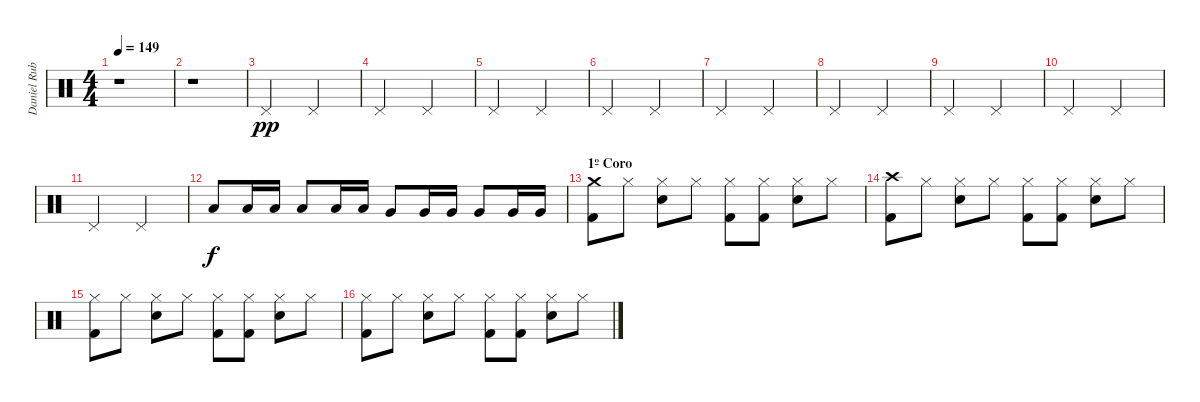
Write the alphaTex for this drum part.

\track ("Daniel Rubiano" "Daniel Rub") {instrument percussion}
\staff {score}
\articulation defaults
\ts (4 4)
\tempo 149
\clef neutral
\ks c
r.1{dy pp} |
r.1 |
"Pedal Hi-Hat (hit)".2 "Pedal Hi-Hat (hit)".2 |
"Pedal Hi-Hat (hit)".2 "Pedal Hi-Hat (hit)".2 |
"Pedal Hi-Hat (hit)".2 "Pedal Hi-Hat (hit)".2 |
"Pedal Hi-Hat (hit)".2 "Pedal Hi-Hat (hit)".2 |
"Pedal Hi-Hat (hit)".2 "Pedal Hi-Hat (hit)".2 |
"Pedal Hi-Hat (hit)".2 "Pedal Hi-Hat (hit)".2 |
"Pedal Hi-Hat (hit)".2 "Pedal Hi-Hat (hit)".2 |
"Pedal Hi-Hat (hit)".2 "Pedal Hi-Hat (hit)".2 |
"Pedal Hi-Hat (hit)".2 "Pedal Hi-Hat (hit)".2 |
"Low Tom (hit)".8{dy f} "Low Tom (hit)".16 "Low Tom (hit)".16 "Low Tom (hit)".8 "Low Tom (hit)".16 "Low Tom (hit)".16 "Very Low Tom (hit)".8 "Very Low Tom (hit)".16 "Very Low Tom (hit)".16 "Very Low Tom (hit)".8 "Very Low Tom (hit)".16 "Very Low Tom (hit)".16 |
\section ("" "1º Coro")
("Crash medium (hit)" "Kick (hit) 2").8 "Hi-Hat (closed)".8 ("Hi-Hat (closed)" "Snare (hit) 2").8 "Hi-Hat (closed)".8 ("Hi-Hat (closed)" "Kick (hit) 2").8 ("Hi-Hat (closed)" "Kick (hit) 2").8 ("Hi-Hat (closed)" "Snare (hit) 2").8 "Hi-Hat (closed)".8 |
("Crash high (hit)" "Kick (hit) 2").8 "Hi-Hat (closed)".8 ("Hi-Hat (closed)" "Snare (hit) 2").8 "Hi-Hat (closed)".8 ("Hi-Hat (closed)" "Kick (hit) 2").8 ("Hi-Hat (closed)" "Kick (hit) 2").8 ("Hi-Hat (closed)" "Snare (hit) 2").8 "Hi-Hat (closed)".8 |
("Hi-Hat (closed)" "Kick (hit) 2").8 "Hi-Hat (closed)".8 ("Hi-Hat (closed)" "Snare (hit) 2").8 "Hi-Hat (closed)".8 ("Hi-Hat (closed)" "Kick (hit) 2").8 ("Hi-Hat (closed)" "Kick (hit) 2").8 ("Hi-Hat (closed)" "Snare (hit) 2").8 "Hi-Hat (closed)".8 |
("Hi-Hat (closed)" "Kick (hit) 2").8 "Hi-Hat (closed)".8 ("Hi-Hat (closed)" "Snare (hit) 2").8 "Hi-Hat (closed)".8 ("Hi-Hat (closed)" "Kick (hit) 2").8 ("Hi-Hat (closed)" "Kick (hit) 2").8 ("Hi-Hat (closed)" "Snare (hit) 2").8 "Hi-Hat (closed)".8
